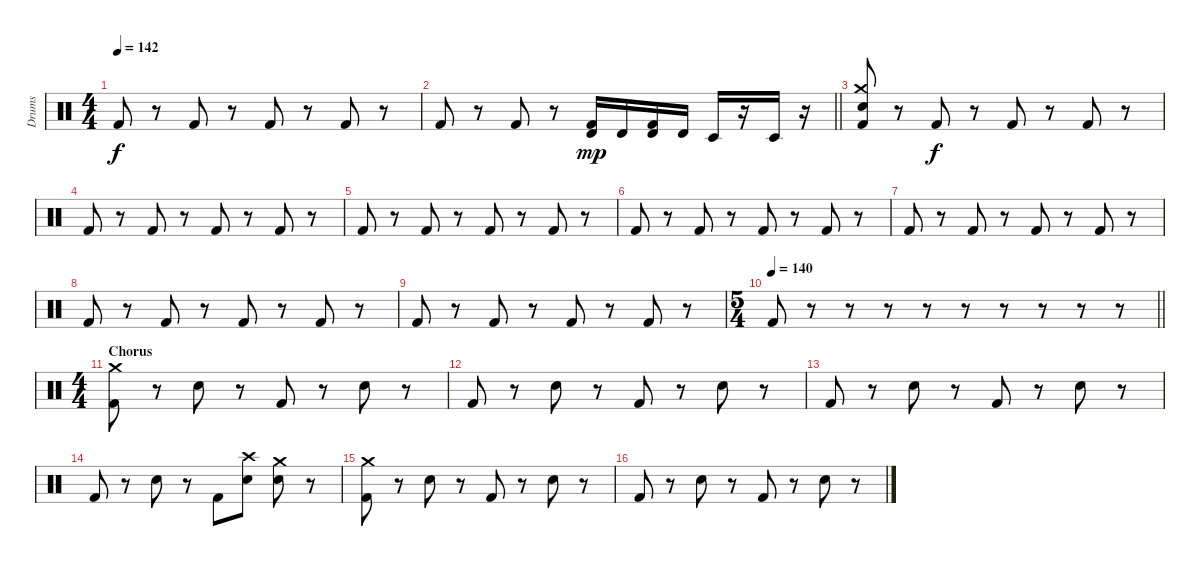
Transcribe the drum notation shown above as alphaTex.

\track ("Drums" "Drums") {instrument percussion}
\staff {score}
\articulation defaults
\ts (4 4)
\tempo 142
\clef neutral
\ks c "Kick (hit) 2".8{dy f}
r.8 "Kick (hit) 2".8 r.8 "Kick (hit) 2".8 r.8 "Kick (hit) 2".8 r.8 |
\barLineRight lightlight "Kick (hit) 2".8
r.8 "Kick (hit) 2".8 r.8 ("Timbale high (hit)" "Kick (hit) 2").16{dy mp} "Timbale high (hit)".16 ("Timbale high (hit)" "Kick (hit) 2").16 "Timbale high (hit)".16 "Timbale low (hit)".16 r.16 "Timbale low (hit)".16 r.16 |
("Crash medium (hit)" "Snare (hit) 2" "Kick (hit) 2").8 r.8 "Kick (hit) 2".8{dy f} r.8 "Kick (hit) 2".8 r.8 "Kick (hit) 2".8 r.8 |
"Kick (hit) 2".8 r.8 "Kick (hit) 2".8 r.8 "Kick (hit) 2".8 r.8 "Kick (hit) 2".8 r.8 |
"Kick (hit) 2".8 r.8 "Kick (hit) 2".8 r.8 "Kick (hit) 2".8 r.8 "Kick (hit) 2".8 r.8 |
"Kick (hit) 2".8 r.8 "Kick (hit) 2".8 r.8 "Kick (hit) 2".8 r.8 "Kick (hit) 2".8 r.8 |
"Kick (hit) 2".8 r.8 "Kick (hit) 2".8 r.8 "Kick (hit) 2".8 r.8 "Kick (hit) 2".8 r.8 |
"Kick (hit) 2".8 r.8 "Kick (hit) 2".8 r.8 "Kick (hit) 2".8 r.8 "Kick (hit) 2".8 r.8 |
"Kick (hit) 2".8 r.8 "Kick (hit) 2".8 r.8 "Kick (hit) 2".8 r.8 "Kick (hit) 2".8 r.8 |
\ts (5 4)
\tempo 140
\barLineRight lightlight "Kick (hit) 2".8
r.8 r.8 r.8 r.8 r.8 r.8 r.8 r.8 r.8 |
\ts (4 4)
\section ("" "Chorus")
("Crash medium (hit)" "Kick (hit) 2").8 r.8 "Snare (hit) 2".8 r.8 "Kick (hit) 2".8 r.8 "Snare (hit) 2".8 r.8 |
"Kick (hit) 2".8 r.8 "Snare (hit) 2".8 r.8 "Kick (hit) 2".8 r.8 "Snare (hit) 2".8 r.8 |
"Kick (hit) 2".8 r.8 "Snare (hit) 2".8 r.8 "Kick (hit) 2".8 r.8 "Snare (hit) 2".8 r.8 |
"Kick (hit) 2".8 r.8 "Snare (hit) 2".8 r.8 "Kick (hit) 2".8 ("Crash high (hit)" "Snare (hit) 2").8 ("Crash medium (hit)" "Snare (hit) 2").8 r.8 |
("Crash medium (hit)" "Kick (hit) 2").8 r.8 "Snare (hit) 2".8 r.8 "Kick (hit) 2".8 r.8 "Snare (hit) 2".8 r.8 |
"Kick (hit) 2".8 r.8 "Snare (hit) 2".8 r.8 "Kick (hit) 2".8 r.8 "Snare (hit) 2".8 r.8
